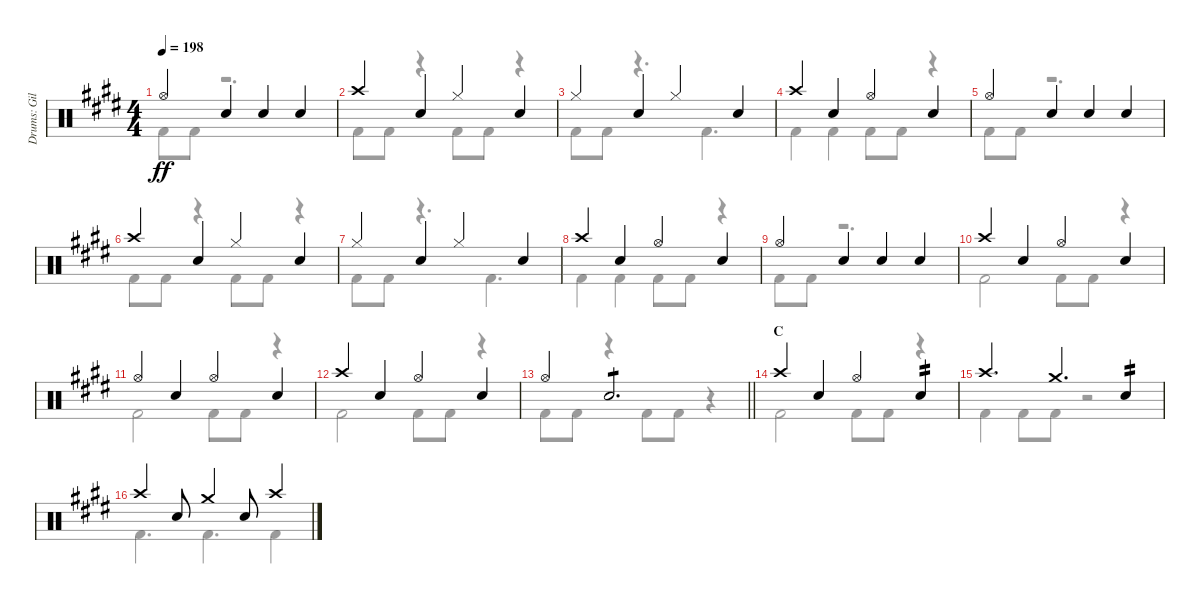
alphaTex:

\track ("Drums: Gil" "Drums: Gil") {instrument percussion}
\staff {score}
\articulation defaults
\voice
\ts (4 4)
\tempo 198
\clef neutral
\ks e "Hi-Hat (open)".4{dy ff} "Snare (hit) 2".4{beam merge} "Snare (hit) 2".4 "Snare (hit) 2".4
|
"Crash high (hit)".4 "Snare (hit) 2".4{beam merge} "Hi-Hat (closed)".4 "Snare (hit) 2".4 |
"Hi-Hat (closed)".4 "Snare (hit) 2".4{beam merge} "Hi-Hat (closed)".4 "Snare (hit) 2".4 |
"Crash high (hit)".4 "Snare (hit) 2".4{beam merge} "Hi-Hat (open)".4 "Snare (hit) 2".4 |
"Hi-Hat (open)".4 "Snare (hit) 2".4{beam merge} "Snare (hit) 2".4 "Snare (hit) 2".4 |
"Crash high (hit)".4 "Snare (hit) 2".4{beam merge} "Hi-Hat (closed)".4 "Snare (hit) 2".4 |
"Hi-Hat (closed)".4 "Snare (hit) 2".4{beam merge} "Hi-Hat (closed)".4 "Snare (hit) 2".4 |
"Crash high (hit)".4 "Snare (hit) 2".4{beam merge} "Hi-Hat (open)".4 "Snare (hit) 2".4 |
"Hi-Hat (open)".4 "Snare (hit) 2".4{beam merge} "Snare (hit) 2".4 "Snare (hit) 2".4 |
"Crash high (hit)".4 "Snare (hit) 2".4{beam merge} "Hi-Hat (open)".4 "Snare (hit) 2".4 |
"Hi-Hat (open)".4 "Snare (hit) 2".4{beam merge} "Hi-Hat (open)".4 "Snare (hit) 2".4 |
"Crash high (hit)".4 "Snare (hit) 2".4{beam merge} "Hi-Hat (open)".4 "Snare (hit) 2".4 |
\barLineRight lightlight "Hi-Hat (open)".4 "Snare (hit) 2".2{d tp 1}
|
\section ("" "C")
"Crash high (hit)".4 "Snare (hit) 2".4{beam merge} "Hi-Hat (open)".4 "Electric Snare (hit)".4{tp 2} |
"Crash high (hit)".4{d} "Crash medium (hit)".4{d} "Snare (hit) 2".4{tp 2} |
"Crash high (hit)".4 "Snare (hit) 2".8 "Crash medium (hit)".4 "Snare (hit) 2".8 "Crash high (hit)".4
\voice
\clef neutral
\ottava regular
\simile none
\ks e "Kick (hit) 2".8{dy ff} "Kick (hit) 2".8
r.2{d} |
"Kick (hit) 2".8 "Kick (hit) 2".8 r.4 "Kick (hit) 2".8 "Kick (hit) 2".8 r.4 |
"Kick (hit) 2".8 "Kick (hit) 2".8{beam merge} r.4{d} "Kick (hit) 2".4{d} |
"Kick (hit) 2".4 "Kick (hit) 2".4 "Kick (hit) 2".8 "Kick (hit) 2".8 r.4 |
"Kick (hit) 2".8 "Kick (hit) 2".8 r.2{d} |
"Kick (hit) 2".8 "Kick (hit) 2".8 r.4 "Kick (hit) 2".8 "Kick (hit) 2".8 r.4 |
"Kick (hit) 2".8 "Kick (hit) 2".8{beam merge} r.4{d} "Kick (hit) 2".4{d} |
"Kick (hit) 2".4 "Kick (hit) 2".4 "Kick (hit) 2".8 "Kick (hit) 2".8 r.4 |
"Kick (hit) 2".8 "Kick (hit) 2".8 r.2{d} |
"Kick (hit) 2".2 "Kick (hit) 2".8 "Kick (hit) 2".8 r.4 |
"Kick (hit) 2".2 "Kick (hit) 2".8 "Kick (hit) 2".8 r.4 |
"Kick (hit) 2".2 "Kick (hit) 2".8 "Kick (hit) 2".8 r.4 |
\barLineRight lightlight "Kick (hit) 2".8 "Kick (hit) 2".8
r.4 "Kick (hit) 2".8 "Kick (hit) 2".8 r.4 |
"Kick (hit) 2".2 "Kick (hit) 2".8 "Kick (hit) 2".8 r.4 |
"Kick (hit) 2".4 "Kick (hit) 2".8 "Kick (hit) 2".8 r.2 |
"Kick (hit) 2".4{d} "Kick (hit) 2".4{d} "Kick (hit) 2".4
